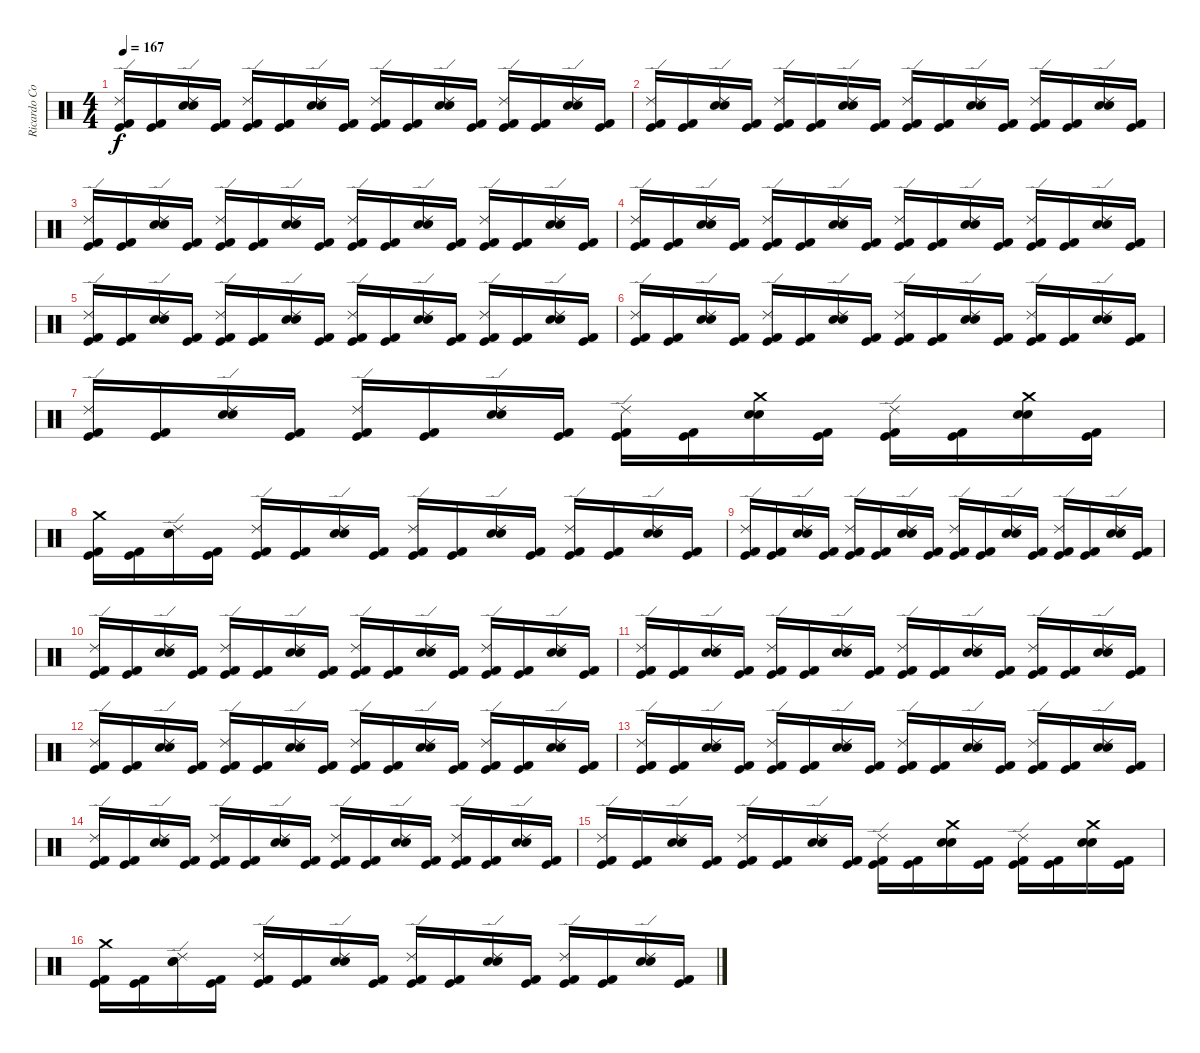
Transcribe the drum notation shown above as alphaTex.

\track ("Ricardo Confessori" "Ricardo Co") {instrument percussion}
\staff {score}
\articulation defaults
\ts (4 4)
\tempo 167
\clef neutral
\ks c
("Ride (edge) 2" "Kick (hit) 2" "Kick (hit)").16{dy f} ("Kick (hit) 2" "Kick (hit)").16 ("Electric Snare (hit)" "Snare (hit) 2" "Ride (edge) 2").16 ("Kick (hit) 2" "Kick (hit)").16 ("Ride (edge) 2" "Kick (hit) 2" "Kick (hit)").16 ("Kick (hit) 2" "Kick (hit)").16 ("Electric Snare (hit)" "Snare (hit) 2" "Ride (edge) 2").16 ("Kick (hit) 2" "Kick (hit)").16 ("Ride (edge) 2" "Kick (hit) 2" "Kick (hit)").16 ("Kick (hit) 2" "Kick (hit)").16 ("Electric Snare (hit)" "Snare (hit) 2" "Ride (edge) 2").16 ("Kick (hit) 2" "Kick (hit)").16 ("Ride (edge) 2" "Kick (hit) 2" "Kick (hit)").16 ("Kick (hit) 2" "Kick (hit)").16 ("Electric Snare (hit)" "Snare (hit) 2" "Ride (edge) 2").16 ("Kick (hit) 2" "Kick (hit)").16 |
("Ride (edge) 2" "Kick (hit) 2" "Kick (hit)").16 ("Kick (hit) 2" "Kick (hit)").16 ("Electric Snare (hit)" "Snare (hit) 2" "Ride (edge) 2").16 ("Kick (hit) 2" "Kick (hit)").16 ("Ride (edge) 2" "Kick (hit) 2" "Kick (hit)").16 ("Kick (hit) 2" "Kick (hit)").16 ("Electric Snare (hit)" "Snare (hit) 2" "Ride (edge) 2").16 ("Kick (hit) 2" "Kick (hit)").16 ("Ride (edge) 2" "Kick (hit) 2" "Kick (hit)").16 ("Kick (hit) 2" "Kick (hit)").16 ("Electric Snare (hit)" "Snare (hit) 2" "Ride (edge) 2").16 ("Kick (hit) 2" "Kick (hit)").16 ("Ride (edge) 2" "Kick (hit) 2" "Kick (hit)").16 ("Kick (hit) 2" "Kick (hit)").16 ("Electric Snare (hit)" "Snare (hit) 2" "Ride (edge) 2").16 ("Kick (hit) 2" "Kick (hit)").16 |
("Ride (edge) 2" "Kick (hit) 2" "Kick (hit)").16 ("Kick (hit) 2" "Kick (hit)").16 ("Electric Snare (hit)" "Snare (hit) 2" "Ride (edge) 2").16 ("Kick (hit) 2" "Kick (hit)").16 ("Ride (edge) 2" "Kick (hit) 2" "Kick (hit)").16 ("Kick (hit) 2" "Kick (hit)").16 ("Electric Snare (hit)" "Snare (hit) 2" "Ride (edge) 2").16 ("Kick (hit) 2" "Kick (hit)").16 ("Ride (edge) 2" "Kick (hit) 2" "Kick (hit)").16 ("Kick (hit) 2" "Kick (hit)").16 ("Electric Snare (hit)" "Snare (hit) 2" "Ride (edge) 2").16 ("Kick (hit) 2" "Kick (hit)").16 ("Ride (edge) 2" "Kick (hit) 2" "Kick (hit)").16 ("Kick (hit) 2" "Kick (hit)").16 ("Electric Snare (hit)" "Snare (hit) 2" "Ride (edge) 2").16 ("Kick (hit) 2" "Kick (hit)").16 |
("Ride (edge) 2" "Kick (hit) 2" "Kick (hit)").16 ("Kick (hit) 2" "Kick (hit)").16 ("Electric Snare (hit)" "Snare (hit) 2" "Ride (edge) 2").16 ("Kick (hit) 2" "Kick (hit)").16 ("Ride (edge) 2" "Kick (hit) 2" "Kick (hit)").16 ("Kick (hit) 2" "Kick (hit)").16 ("Electric Snare (hit)" "Snare (hit) 2" "Ride (edge) 2").16 ("Kick (hit) 2" "Kick (hit)").16 ("Ride (edge) 2" "Kick (hit) 2" "Kick (hit)").16 ("Kick (hit) 2" "Kick (hit)").16 ("Electric Snare (hit)" "Snare (hit) 2" "Ride (edge) 2").16 ("Kick (hit) 2" "Kick (hit)").16 ("Ride (edge) 2" "Kick (hit) 2" "Kick (hit)").16 ("Kick (hit) 2" "Kick (hit)").16 ("Electric Snare (hit)" "Snare (hit) 2" "Ride (edge) 2").16 ("Kick (hit) 2" "Kick (hit)").16 |
("Ride (edge) 2" "Kick (hit) 2" "Kick (hit)").16 ("Kick (hit) 2" "Kick (hit)").16 ("Electric Snare (hit)" "Snare (hit) 2" "Ride (edge) 2").16 ("Kick (hit) 2" "Kick (hit)").16 ("Ride (edge) 2" "Kick (hit) 2" "Kick (hit)").16 ("Kick (hit) 2" "Kick (hit)").16 ("Electric Snare (hit)" "Snare (hit) 2" "Ride (edge) 2").16 ("Kick (hit) 2" "Kick (hit)").16 ("Ride (edge) 2" "Kick (hit) 2" "Kick (hit)").16 ("Kick (hit) 2" "Kick (hit)").16 ("Electric Snare (hit)" "Snare (hit) 2" "Ride (edge) 2").16 ("Kick (hit) 2" "Kick (hit)").16 ("Ride (edge) 2" "Kick (hit) 2" "Kick (hit)").16 ("Kick (hit) 2" "Kick (hit)").16 ("Electric Snare (hit)" "Snare (hit) 2" "Ride (edge) 2").16 ("Kick (hit) 2" "Kick (hit)").16 |
("Ride (edge) 2" "Kick (hit) 2" "Kick (hit)").16 ("Kick (hit) 2" "Kick (hit)").16 ("Electric Snare (hit)" "Snare (hit) 2" "Ride (edge) 2").16 ("Kick (hit) 2" "Kick (hit)").16 ("Ride (edge) 2" "Kick (hit) 2" "Kick (hit)").16 ("Kick (hit) 2" "Kick (hit)").16 ("Electric Snare (hit)" "Snare (hit) 2" "Ride (edge) 2").16 ("Kick (hit) 2" "Kick (hit)").16 ("Ride (edge) 2" "Kick (hit) 2" "Kick (hit)").16 ("Kick (hit) 2" "Kick (hit)").16 ("Electric Snare (hit)" "Snare (hit) 2" "Ride (edge) 2").16 ("Kick (hit) 2" "Kick (hit)").16 ("Ride (edge) 2" "Kick (hit) 2" "Kick (hit)").16 ("Kick (hit) 2" "Kick (hit)").16 ("Electric Snare (hit)" "Snare (hit) 2" "Ride (edge) 2").16 ("Kick (hit) 2" "Kick (hit)").16 |
("Ride (edge) 2" "Kick (hit) 2" "Kick (hit)").16 ("Kick (hit) 2" "Kick (hit)").16 ("Electric Snare (hit)" "Snare (hit) 2" "Ride (edge) 2").16 ("Kick (hit) 2" "Kick (hit)").16 ("Ride (edge) 2" "Kick (hit) 2" "Kick (hit)").16 ("Kick (hit) 2" "Kick (hit)").16 ("Electric Snare (hit)" "Snare (hit) 2" "Ride (edge) 2").16 ("Kick (hit) 2" "Kick (hit)").16 ("Ride (edge) 2" "Kick (hit) 2" "Kick (hit)").16 ("Kick (hit) 2" "Kick (hit)").16 ("Crash medium (hit)" "Electric Snare (hit)" "Snare (hit) 2").16 ("Kick (hit) 2" "Kick (hit)").16 ("Ride (edge) 2" "Kick (hit) 2" "Kick (hit)").16 ("Kick (hit) 2" "Kick (hit)").16 ("Crash medium (hit)" "Electric Snare (hit)" "Snare (hit) 2").16 ("Kick (hit) 2" "Kick (hit)").16 |
("Crash medium (hit)" "Kick (hit) 2" "Kick (hit)").16 ("Kick (hit) 2" "Kick (hit)").16 ("Electric Snare (hit)" "Snare (hit) 2" "Ride (edge) 2").16 ("Kick (hit) 2" "Kick (hit)").16 ("Ride (edge) 2" "Kick (hit) 2" "Kick (hit)").16 ("Kick (hit) 2" "Kick (hit)").16 ("Electric Snare (hit)" "Snare (hit) 2" "Ride (edge) 2").16 ("Kick (hit) 2" "Kick (hit)").16 ("Ride (edge) 2" "Kick (hit) 2" "Kick (hit)").16 ("Kick (hit) 2" "Kick (hit)").16 ("Electric Snare (hit)" "Snare (hit) 2" "Ride (edge) 2").16 ("Kick (hit) 2" "Kick (hit)").16 ("Ride (edge) 2" "Kick (hit) 2" "Kick (hit)").16 ("Kick (hit) 2" "Kick (hit)").16 ("Electric Snare (hit)" "Snare (hit) 2" "Ride (edge) 2").16 ("Kick (hit) 2" "Kick (hit)").16 |
("Ride (edge) 2" "Kick (hit) 2" "Kick (hit)").16 ("Kick (hit) 2" "Kick (hit)").16 ("Electric Snare (hit)" "Snare (hit) 2" "Ride (edge) 2").16 ("Kick (hit) 2" "Kick (hit)").16 ("Ride (edge) 2" "Kick (hit) 2" "Kick (hit)").16 ("Kick (hit) 2" "Kick (hit)").16 ("Electric Snare (hit)" "Snare (hit) 2" "Ride (edge) 2").16 ("Kick (hit) 2" "Kick (hit)").16 ("Ride (edge) 2" "Kick (hit) 2" "Kick (hit)").16 ("Kick (hit) 2" "Kick (hit)").16 ("Electric Snare (hit)" "Snare (hit) 2" "Ride (edge) 2").16 ("Kick (hit) 2" "Kick (hit)").16 ("Ride (edge) 2" "Kick (hit) 2" "Kick (hit)").16 ("Kick (hit) 2" "Kick (hit)").16 ("Electric Snare (hit)" "Snare (hit) 2" "Ride (edge) 2").16 ("Kick (hit) 2" "Kick (hit)").16 |
("Ride (edge) 2" "Kick (hit) 2" "Kick (hit)").16 ("Kick (hit) 2" "Kick (hit)").16 ("Electric Snare (hit)" "Snare (hit) 2" "Ride (edge) 2").16 ("Kick (hit) 2" "Kick (hit)").16 ("Ride (edge) 2" "Kick (hit) 2" "Kick (hit)").16 ("Kick (hit) 2" "Kick (hit)").16 ("Electric Snare (hit)" "Snare (hit) 2" "Ride (edge) 2").16 ("Kick (hit) 2" "Kick (hit)").16 ("Ride (edge) 2" "Kick (hit) 2" "Kick (hit)").16 ("Kick (hit) 2" "Kick (hit)").16 ("Electric Snare (hit)" "Snare (hit) 2" "Ride (edge) 2").16 ("Kick (hit) 2" "Kick (hit)").16 ("Ride (edge) 2" "Kick (hit) 2" "Kick (hit)").16 ("Kick (hit) 2" "Kick (hit)").16 ("Electric Snare (hit)" "Snare (hit) 2" "Ride (edge) 2").16 ("Kick (hit) 2" "Kick (hit)").16 |
("Ride (edge) 2" "Kick (hit) 2" "Kick (hit)").16 ("Kick (hit) 2" "Kick (hit)").16 ("Electric Snare (hit)" "Snare (hit) 2" "Ride (edge) 2").16 ("Kick (hit) 2" "Kick (hit)").16 ("Ride (edge) 2" "Kick (hit) 2" "Kick (hit)").16 ("Kick (hit) 2" "Kick (hit)").16 ("Electric Snare (hit)" "Snare (hit) 2" "Ride (edge) 2").16 ("Kick (hit) 2" "Kick (hit)").16 ("Ride (edge) 2" "Kick (hit) 2" "Kick (hit)").16 ("Kick (hit) 2" "Kick (hit)").16 ("Electric Snare (hit)" "Snare (hit) 2" "Ride (edge) 2").16 ("Kick (hit) 2" "Kick (hit)").16 ("Ride (edge) 2" "Kick (hit) 2" "Kick (hit)").16 ("Kick (hit) 2" "Kick (hit)").16 ("Electric Snare (hit)" "Snare (hit) 2" "Ride (edge) 2").16 ("Kick (hit) 2" "Kick (hit)").16 |
("Ride (edge) 2" "Kick (hit) 2" "Kick (hit)").16 ("Kick (hit) 2" "Kick (hit)").16 ("Electric Snare (hit)" "Snare (hit) 2" "Ride (edge) 2").16 ("Kick (hit) 2" "Kick (hit)").16 ("Ride (edge) 2" "Kick (hit) 2" "Kick (hit)").16 ("Kick (hit) 2" "Kick (hit)").16 ("Electric Snare (hit)" "Snare (hit) 2" "Ride (edge) 2").16 ("Kick (hit) 2" "Kick (hit)").16 ("Ride (edge) 2" "Kick (hit) 2" "Kick (hit)").16 ("Kick (hit) 2" "Kick (hit)").16 ("Electric Snare (hit)" "Snare (hit) 2" "Ride (edge) 2").16 ("Kick (hit) 2" "Kick (hit)").16 ("Ride (edge) 2" "Kick (hit) 2" "Kick (hit)").16 ("Kick (hit) 2" "Kick (hit)").16 ("Electric Snare (hit)" "Snare (hit) 2" "Ride (edge) 2").16 ("Kick (hit) 2" "Kick (hit)").16 |
("Ride (edge) 2" "Kick (hit) 2" "Kick (hit)").16 ("Kick (hit) 2" "Kick (hit)").16 ("Electric Snare (hit)" "Snare (hit) 2" "Ride (edge) 2").16 ("Kick (hit) 2" "Kick (hit)").16 ("Ride (edge) 2" "Kick (hit) 2" "Kick (hit)").16 ("Kick (hit) 2" "Kick (hit)").16 ("Electric Snare (hit)" "Snare (hit) 2" "Ride (edge) 2").16 ("Kick (hit) 2" "Kick (hit)").16 ("Ride (edge) 2" "Kick (hit) 2" "Kick (hit)").16 ("Kick (hit) 2" "Kick (hit)").16 ("Electric Snare (hit)" "Snare (hit) 2" "Ride (edge) 2").16 ("Kick (hit) 2" "Kick (hit)").16 ("Ride (edge) 2" "Kick (hit) 2" "Kick (hit)").16 ("Kick (hit) 2" "Kick (hit)").16 ("Electric Snare (hit)" "Snare (hit) 2" "Ride (edge) 2").16 ("Kick (hit) 2" "Kick (hit)").16 |
("Ride (edge) 2" "Kick (hit) 2" "Kick (hit)").16 ("Kick (hit) 2" "Kick (hit)").16 ("Electric Snare (hit)" "Snare (hit) 2" "Ride (edge) 2").16 ("Kick (hit) 2" "Kick (hit)").16 ("Ride (edge) 2" "Kick (hit) 2" "Kick (hit)").16 ("Kick (hit) 2" "Kick (hit)").16 ("Electric Snare (hit)" "Snare (hit) 2" "Ride (edge) 2").16 ("Kick (hit) 2" "Kick (hit)").16 ("Ride (edge) 2" "Kick (hit) 2" "Kick (hit)").16 ("Kick (hit) 2" "Kick (hit)").16 ("Electric Snare (hit)" "Snare (hit) 2" "Ride (edge) 2").16 ("Kick (hit) 2" "Kick (hit)").16 ("Ride (edge) 2" "Kick (hit) 2" "Kick (hit)").16 ("Kick (hit) 2" "Kick (hit)").16 ("Electric Snare (hit)" "Snare (hit) 2" "Ride (edge) 2").16 ("Kick (hit) 2" "Kick (hit)").16 |
("Ride (edge) 2" "Kick (hit) 2" "Kick (hit)").16 ("Kick (hit) 2" "Kick (hit)").16 ("Electric Snare (hit)" "Snare (hit) 2" "Ride (edge) 2").16 ("Kick (hit) 2" "Kick (hit)").16 ("Ride (edge) 2" "Kick (hit) 2" "Kick (hit)").16 ("Kick (hit) 2" "Kick (hit)").16 ("Electric Snare (hit)" "Snare (hit) 2" "Ride (edge) 2").16 ("Kick (hit) 2" "Kick (hit)").16 ("Ride (edge) 2" "Kick (hit) 2" "Kick (hit)").16 ("Kick (hit) 2" "Kick (hit)").16 ("Crash medium (hit)" "Electric Snare (hit)" "Snare (hit) 2").16 ("Kick (hit) 2" "Kick (hit)").16 ("Ride (edge) 2" "Kick (hit) 2" "Kick (hit)").16 ("Kick (hit) 2" "Kick (hit)").16 ("Crash medium (hit)" "Electric Snare (hit)" "Snare (hit) 2").16 ("Kick (hit) 2" "Kick (hit)").16 |
("Crash medium (hit)" "Kick (hit) 2" "Kick (hit)").16 ("Kick (hit) 2" "Kick (hit)").16 ("Electric Snare (hit)" "Snare (hit) 2" "Ride (edge) 2").16 ("Kick (hit) 2" "Kick (hit)").16 ("Ride (edge) 2" "Kick (hit) 2" "Kick (hit)").16 ("Kick (hit) 2" "Kick (hit)").16 ("Electric Snare (hit)" "Snare (hit) 2" "Ride (edge) 2").16 ("Kick (hit) 2" "Kick (hit)").16 ("Ride (edge) 2" "Kick (hit) 2" "Kick (hit)").16 ("Kick (hit) 2" "Kick (hit)").16 ("Electric Snare (hit)" "Snare (hit) 2" "Ride (edge) 2").16 ("Kick (hit) 2" "Kick (hit)").16 ("Ride (edge) 2" "Kick (hit) 2" "Kick (hit)").16 ("Kick (hit) 2" "Kick (hit)").16 ("Electric Snare (hit)" "Snare (hit) 2" "Ride (edge) 2").16 ("Kick (hit) 2" "Kick (hit)").16
